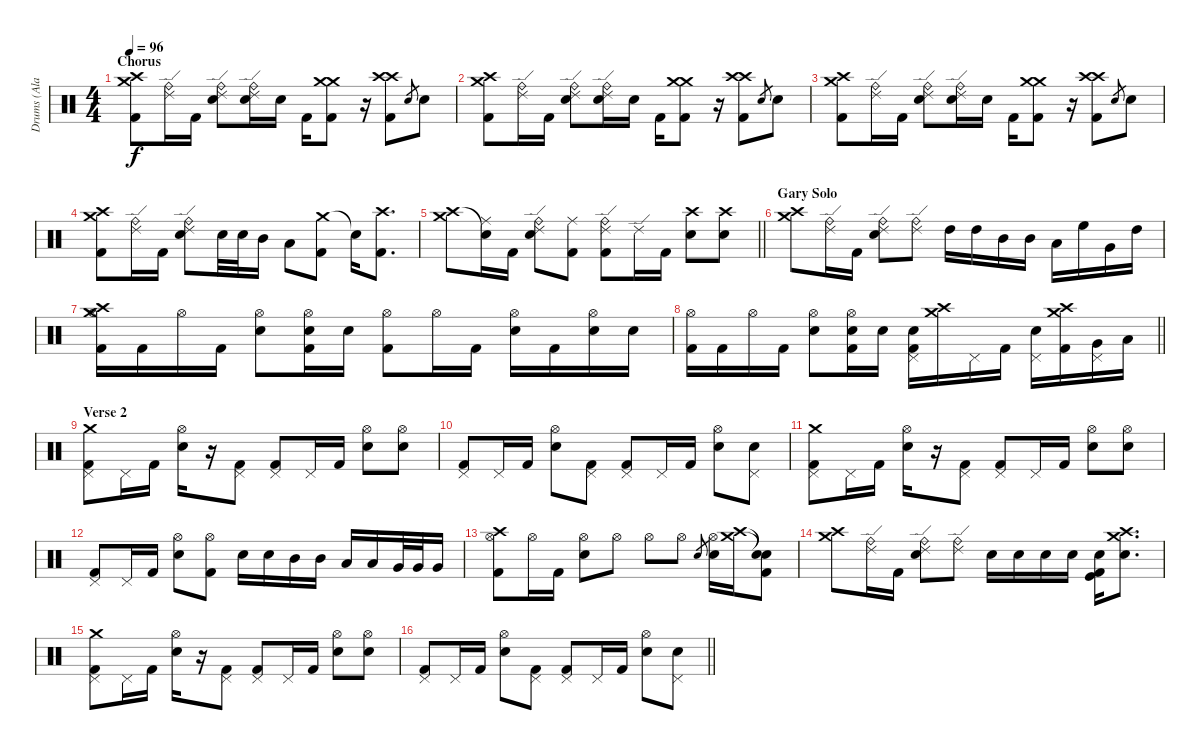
\track ("Drums (Ala Pyle)" "Drums (Ala") {instrument percussion}
\staff {score}
\articulation defaults
\ts (4 4)
\section ("" "Chorus")
\tempo 96
\clef neutral
\ks c
("Crash medium (hit)" "Crash high (hit)" "Kick (hit) 2").8{dy f} ("Ride (edge) 2" "Ride (bell)").16 "Kick (hit) 2".16 ("Ride (edge) 2" "Ride (bell)" "Electric Snare (hit)").8 ("Ride (edge) 2" "Ride (bell)" "Electric Snare (hit)").16 "Electric Snare (hit)".16 "Kick (hit) 2".16 ("Crash medium (hit)" "Crash medium (hit)" "Kick (hit) 2").8 r.16 ("Crash high (hit)" "Crash high (hit)" "Kick (hit) 2").8 "Electric Snare (hit)".8{gr} "Electric Snare (hit)".8 |
("Crash medium (hit)" "Crash high (hit)" "Kick (hit) 2").8 ("Ride (edge) 2" "Ride (bell)").16 "Kick (hit) 2".16 ("Ride (edge) 2" "Ride (bell)" "Electric Snare (hit)").8 ("Ride (edge) 2" "Ride (bell)" "Electric Snare (hit)").16 "Electric Snare (hit)".16 "Kick (hit) 2".16 ("Crash medium (hit)" "Crash medium (hit)" "Kick (hit) 2").8 r.16 ("Crash high (hit)" "Crash high (hit)" "Kick (hit) 2").8 "Electric Snare (hit)".8{gr} "Electric Snare (hit)".8 |
("Crash medium (hit)" "Crash high (hit)" "Kick (hit) 2").8 ("Ride (edge) 2" "Ride (bell)").16 "Kick (hit) 2".16 ("Ride (edge) 2" "Ride (bell)" "Electric Snare (hit)").8 ("Ride (edge) 2" "Ride (bell)" "Electric Snare (hit)").16 "Electric Snare (hit)".16 "Kick (hit) 2".16 ("Crash medium (hit)" "Crash medium (hit)" "Kick (hit) 2").8 r.16 ("Crash high (hit)" "Crash high (hit)" "Kick (hit) 2").8 "Electric Snare (hit)".8{gr} "Electric Snare (hit)".8 |
("Crash medium (hit)" "Crash high (hit)" "Kick (hit) 2").8 ("Ride (edge) 2" "Ride (bell)").16 "Kick (hit) 2".16 ("Ride (edge) 2" "Ride (bell)" "Electric Snare (hit)").8 "Electric Snare (hit)".32 "Electric Snare (hit)".32 "Mid Tom (hit)".16 "Low Tom (hit)".8 ("Crash medium (hit)" "Kick (hit) 2").8 "Snare (hit)"{t}.16 ("Crash high (hit)" "Kick (hit) 2").8{d} |
\barLineRight lightlight
("Crash medium (hit)" "Crash high (hit)").8 ("Ride (middle)" "Snare (hit)"{t}).16 "Kick (hit) 2".16 ("Ride (edge) 2" "Ride (bell)" "Electric Snare (hit)").8 ("Ride (middle)" "Kick (hit) 2").8 ("Ride (edge) 2" "Ride (bell)" "Kick (hit) 2").8 "Ride (edge) 2".16 "Kick (hit) 2".16 ("Crash high (hit)" "Electric Snare (hit)").8 ("Crash high (hit)" "Electric Snare (hit)").8 |
\section ("" "Gary Solo")
("Crash medium (hit)" "Crash high (hit)").8 ("Ride (edge) 2" "Ride (bell)").16 "Kick (hit) 2".16 ("Ride (edge) 2" "Ride (bell)" "Electric Snare (hit)").8 ("Ride (edge) 2" "Ride (bell)").8 "High Tom (hit)".16 "High Tom (hit)".16 "Mid Tom (hit)".16 "Mid Tom (hit)".16 "Low Tom (hit)".16 "High Floor Tom (hit)".16 "Very Low Tom (hit)".16 "High Tom (hit)".16 |
("Crash high (hit)" "Crash medium (hit)" "Hi-Hat (open)" "Kick (hit) 2").16 "Kick (hit) 2".16 "Hi-Hat (open)".16 "Kick (hit) 2".16 ("Hi-Hat (open)" "Electric Snare (hit)").8 ("Hi-Hat (open)" "Electric Snare (hit)" "Kick (hit) 2").16 "Electric Snare (hit)".16 ("Hi-Hat (open)" "Kick (hit) 2").8 "Hi-Hat (open)".16 "Kick (hit) 2".16 ("Hi-Hat (open)" "Electric Snare (hit)").16 "Kick (hit) 2".16 ("Hi-Hat (open)" "Electric Snare (hit)").16 "Electric Snare (hit)".16 |
\barLineRight lightlight
("Hi-Hat (open)" "Kick (hit) 2").16 "Kick (hit) 2".16 "Hi-Hat (open)".16 "Kick (hit) 2".16 ("Hi-Hat (open)" "Electric Snare (hit)").8 ("Hi-Hat (open)" "Electric Snare (hit)" "Kick (hit) 2").16 "Electric Snare (hit)".16 ("Pedal Hi-Hat (hit)" "Electric Snare (hit)" "Kick (hit) 2").16 ("Crash medium (hit)" "Crash high (hit)").16 "Pedal Hi-Hat (hit)".16 "Kick (hit) 2".16 ("Pedal Hi-Hat (hit)" "Electric Snare (hit)").16 ("Crash high (hit)" "Crash medium (hit)" "Kick (hit) 2").16 ("Pedal Hi-Hat (hit)" "Very Low Tom (hit)").16 "Low Floor Tom (hit)".16 |
\section ("" "Verse 2")
("Crash medium (hit)" "Pedal Hi-Hat (hit)" "Kick (hit) 2").8 "Pedal Hi-Hat (hit)".16 "Kick (hit) 2".16 ("Electric Snare (hit)" "Hi-Hat (open)").16 r.16 ("Pedal Hi-Hat (hit)" "Kick (hit) 2").8 ("Pedal Hi-Hat (hit)" "Kick (hit) 2").8 "Pedal Hi-Hat (hit)".16 "Kick (hit) 2".16 ("Electric Snare (hit)" "Hi-Hat (open)").8 ("Electric Snare (hit)" "Hi-Hat (open)").8 |
("Pedal Hi-Hat (hit)" "Kick (hit) 2").8 "Pedal Hi-Hat (hit)".16 "Kick (hit) 2".16 ("Electric Snare (hit)" "Hi-Hat (open)").8 ("Pedal Hi-Hat (hit)" "Kick (hit) 2").8 ("Pedal Hi-Hat (hit)" "Kick (hit) 2").8 "Pedal Hi-Hat (hit)".16 "Kick (hit) 2".16 ("Electric Snare (hit)" "Hi-Hat (open)").8 ("Electric Snare (hit)" "Pedal Hi-Hat (hit)").8 |
("Crash medium (hit)" "Pedal Hi-Hat (hit)" "Kick (hit) 2").8 "Pedal Hi-Hat (hit)".16 "Kick (hit) 2".16 ("Electric Snare (hit)" "Hi-Hat (open)").16 r.16 ("Pedal Hi-Hat (hit)" "Kick (hit) 2").8 ("Pedal Hi-Hat (hit)" "Kick (hit) 2").8 "Pedal Hi-Hat (hit)".16 "Kick (hit) 2".16 ("Electric Snare (hit)" "Hi-Hat (open)").8 ("Electric Snare (hit)" "Hi-Hat (open)").8 |
("Pedal Hi-Hat (hit)" "Kick (hit) 2").8 "Pedal Hi-Hat (hit)".16 "Kick (hit) 2".16 ("Electric Snare (hit)" "Hi-Hat (open)").8 ("Hi-Hat (open)" "Kick (hit) 2").8 "Electric Snare (hit)".16 "Electric Snare (hit)".16 "Mid Tom (hit)".16 "Mid Tom (hit)".16 "Low Tom (hit)".16 "Low Tom (hit)".16 "Very Low Tom (hit)".32 "Very Low Tom (hit)".32 "Very Low Tom (hit)".16 |
("Crash high (hit)" "Hi-Hat (open)" "Kick (hit) 2").8 "Hi-Hat (open)".16 "Kick (hit) 2".16 ("Electric Snare (hit)" "Hi-Hat (open)").8 "Hi-Hat (open)".8 "Hi-Hat (open)".8 "Hi-Hat (open)".8 "Electric Snare (hit)".8{gr} ("Electric Snare (hit)" "Hi-Hat (open)").16 ("Crash high (hit)" "Crash medium (hit)").16 ("Snare (hit)"{t} "Snare (hit)"{t} "Kick (hit) 2").8 |
("Crash high (hit)" "Crash medium (hit)").8 ("Ride (bell)" "Ride (edge) 2").16 "Kick (hit) 2".16 ("Ride (bell)" "Ride (edge) 2" "Electric Snare (hit)").8 ("Ride (bell)" "Ride (edge) 2").8 "Electric Snare (hit)".16 "Electric Snare (hit)".16 "Electric Snare (hit)".16 "Electric Snare (hit)".16 ("Electric Snare (hit)" "Kick (hit)" "Kick (hit) 2").16 ("Crash medium (hit)" "Crash high (hit)" "Electric Snare (hit)").8{d} |
("Crash medium (hit)" "Pedal Hi-Hat (hit)" "Kick (hit) 2").8 "Pedal Hi-Hat (hit)".16 "Kick (hit) 2".16 ("Electric Snare (hit)" "Hi-Hat (open)").16 r.16 ("Pedal Hi-Hat (hit)" "Kick (hit) 2").8 ("Pedal Hi-Hat (hit)" "Kick (hit) 2").8 "Pedal Hi-Hat (hit)".16 "Kick (hit) 2".16 ("Electric Snare (hit)" "Hi-Hat (open)").8 ("Electric Snare (hit)" "Hi-Hat (open)").8 |
\barLineRight lightlight
("Pedal Hi-Hat (hit)" "Kick (hit) 2").8 "Pedal Hi-Hat (hit)".16 "Kick (hit) 2".16 ("Electric Snare (hit)" "Hi-Hat (open)").8 ("Pedal Hi-Hat (hit)" "Kick (hit) 2").8 ("Pedal Hi-Hat (hit)" "Kick (hit) 2").8 "Pedal Hi-Hat (hit)".16 "Kick (hit) 2".16 ("Electric Snare (hit)" "Hi-Hat (open)").8 ("Electric Snare (hit)" "Pedal Hi-Hat (hit)").8
